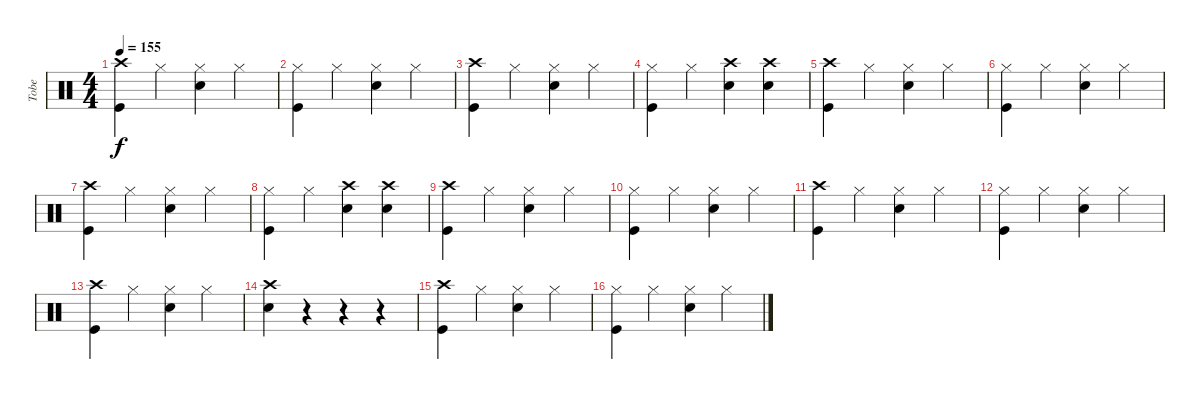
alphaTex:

\track ("Tobe" "Tobe") {instrument percussion}
\staff {score}
\articulation defaults
\ts (4 4)
\tempo 155
\clef neutral
\ks c
("Crash high (hit)" "Kick (hit)").4{dy f} "Hi-Hat (closed)".4 ("Hi-Hat (closed)" "Electric Snare (hit)").4 "Hi-Hat (closed)".4 |
("Hi-Hat (closed)" "Kick (hit)").4 "Hi-Hat (closed)".4 ("Hi-Hat (closed)" "Electric Snare (hit)").4 "Hi-Hat (closed)".4 |
("Crash high (hit)" "Kick (hit)").4 "Hi-Hat (closed)".4 ("Hi-Hat (closed)" "Electric Snare (hit)").4 "Hi-Hat (closed)".4 |
("Hi-Hat (closed)" "Kick (hit)").4 "Hi-Hat (closed)".4 ("Crash high (hit)" "Electric Snare (hit)").4 ("Crash high (hit)" "Electric Snare (hit)").4 |
("Crash high (hit)" "Kick (hit)").4 "Hi-Hat (closed)".4 ("Hi-Hat (closed)" "Electric Snare (hit)").4 "Hi-Hat (closed)".4 |
("Hi-Hat (closed)" "Kick (hit)").4 "Hi-Hat (closed)".4 ("Hi-Hat (closed)" "Electric Snare (hit)").4 "Hi-Hat (closed)".4 |
("Crash high (hit)" "Kick (hit)").4 "Hi-Hat (closed)".4 ("Hi-Hat (closed)" "Electric Snare (hit)").4 "Hi-Hat (closed)".4 |
("Hi-Hat (closed)" "Kick (hit)").4 "Hi-Hat (closed)".4 ("Crash high (hit)" "Electric Snare (hit)").4 ("Crash high (hit)" "Electric Snare (hit)").4 |
("Crash high (hit)" "Kick (hit)").4 "Hi-Hat (closed)".4 ("Hi-Hat (closed)" "Electric Snare (hit)").4 "Hi-Hat (closed)".4 |
("Hi-Hat (closed)" "Kick (hit)").4 "Hi-Hat (closed)".4 ("Hi-Hat (closed)" "Electric Snare (hit)").4 "Hi-Hat (closed)".4 |
("Crash high (hit)" "Kick (hit)").4 "Hi-Hat (closed)".4 ("Hi-Hat (closed)" "Electric Snare (hit)").4 "Hi-Hat (closed)".4 |
("Hi-Hat (closed)" "Kick (hit)").4 "Hi-Hat (closed)".4 ("Hi-Hat (closed)" "Electric Snare (hit)").4 "Hi-Hat (closed)".4 |
("Crash high (hit)" "Kick (hit)").4 "Hi-Hat (closed)".4 ("Hi-Hat (closed)" "Electric Snare (hit)").4 "Hi-Hat (closed)".4 |
("Crash high (hit)" "Electric Snare (hit)").4 r.4 r.4 r.4 |
("Crash high (hit)" "Kick (hit)").4 "Hi-Hat (closed)".4 ("Hi-Hat (closed)" "Electric Snare (hit)").4 "Hi-Hat (closed)".4 |
("Hi-Hat (closed)" "Kick (hit)").4 "Hi-Hat (closed)".4 ("Hi-Hat (closed)" "Electric Snare (hit)").4 "Hi-Hat (closed)".4
